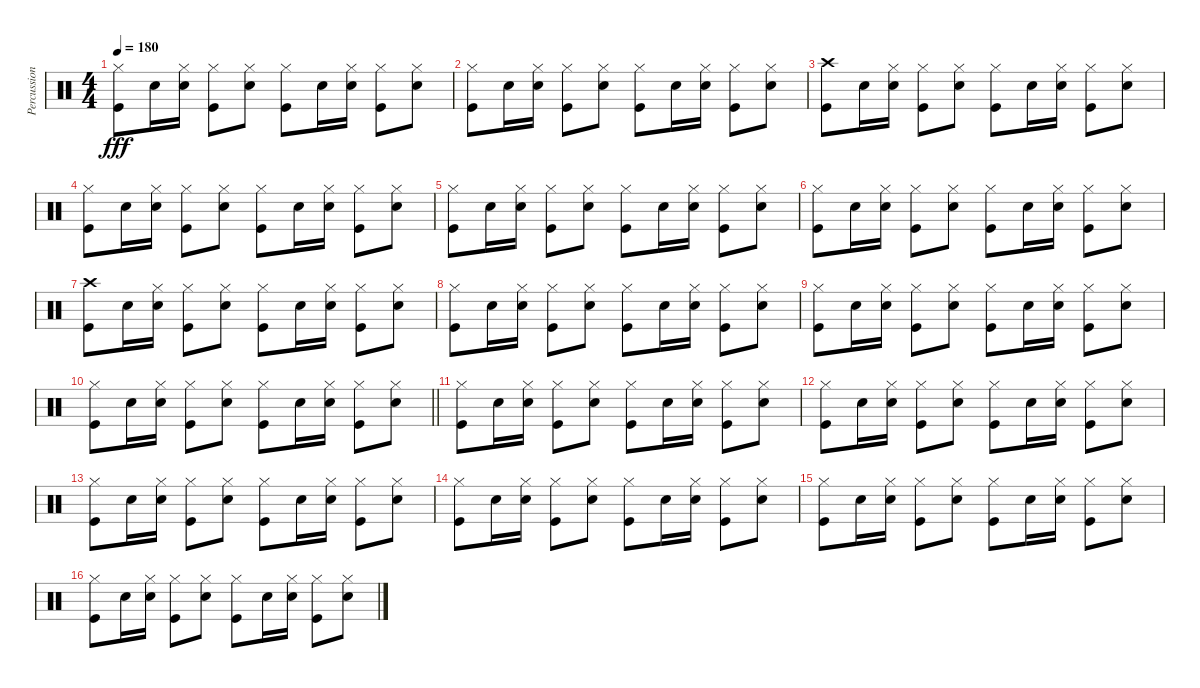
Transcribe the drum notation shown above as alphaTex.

\track ("Percussions" "Percussion") {instrument percussion}
\staff {score}
\articulation defaults
\ts (4 4)
\tempo 180
\clef neutral
\ks c
("Hi-Hat (closed)" "Kick (hit)").8{dy fff} "Electric Snare (hit)".16 ("Hi-Hat (closed)" "Electric Snare (hit)").16 ("Hi-Hat (closed)" "Kick (hit)").8 ("Hi-Hat (closed)" "Electric Snare (hit)").8 ("Hi-Hat (closed)" "Kick (hit)").8 "Electric Snare (hit)".16 ("Hi-Hat (closed)" "Electric Snare (hit)").16 ("Hi-Hat (closed)" "Kick (hit)").8 ("Hi-Hat (closed)" "Electric Snare (hit)").8 |
("Hi-Hat (closed)" "Kick (hit)").8 "Electric Snare (hit)".16 ("Hi-Hat (closed)" "Electric Snare (hit)").16 ("Hi-Hat (closed)" "Kick (hit)").8 ("Hi-Hat (closed)" "Electric Snare (hit)").8 ("Hi-Hat (closed)" "Kick (hit)").8 "Electric Snare (hit)".16 ("Hi-Hat (closed)" "Electric Snare (hit)").16 ("Hi-Hat (closed)" "Kick (hit)").8 ("Hi-Hat (closed)" "Electric Snare (hit)").8 |
("Crash high (hit)" "Kick (hit)").8 "Electric Snare (hit)".16 ("Hi-Hat (closed)" "Electric Snare (hit)").16 ("Hi-Hat (closed)" "Kick (hit)").8 ("Hi-Hat (closed)" "Electric Snare (hit)").8 ("Hi-Hat (closed)" "Kick (hit)").8 "Electric Snare (hit)".16 ("Hi-Hat (closed)" "Electric Snare (hit)").16 ("Hi-Hat (closed)" "Kick (hit)").8 ("Hi-Hat (closed)" "Electric Snare (hit)").8 |
("Hi-Hat (closed)" "Kick (hit)").8 "Electric Snare (hit)".16 ("Hi-Hat (closed)" "Electric Snare (hit)").16 ("Hi-Hat (closed)" "Kick (hit)").8 ("Hi-Hat (closed)" "Electric Snare (hit)").8 ("Hi-Hat (closed)" "Kick (hit)").8 "Electric Snare (hit)".16 ("Hi-Hat (closed)" "Electric Snare (hit)").16 ("Hi-Hat (closed)" "Kick (hit)").8 ("Hi-Hat (closed)" "Electric Snare (hit)").8 |
("Hi-Hat (closed)" "Kick (hit)").8 "Electric Snare (hit)".16 ("Hi-Hat (closed)" "Electric Snare (hit)").16 ("Hi-Hat (closed)" "Kick (hit)").8 ("Hi-Hat (closed)" "Electric Snare (hit)").8 ("Hi-Hat (closed)" "Kick (hit)").8 "Electric Snare (hit)".16 ("Hi-Hat (closed)" "Electric Snare (hit)").16 ("Hi-Hat (closed)" "Kick (hit)").8 ("Hi-Hat (closed)" "Electric Snare (hit)").8 |
("Hi-Hat (closed)" "Kick (hit)").8 "Electric Snare (hit)".16 ("Hi-Hat (closed)" "Electric Snare (hit)").16 ("Hi-Hat (closed)" "Kick (hit)").8 ("Hi-Hat (closed)" "Electric Snare (hit)").8 ("Hi-Hat (closed)" "Kick (hit)").8 "Electric Snare (hit)".16 ("Hi-Hat (closed)" "Electric Snare (hit)").16 ("Hi-Hat (closed)" "Kick (hit)").8 ("Hi-Hat (closed)" "Electric Snare (hit)").8 |
("Crash high (hit)" "Kick (hit)").8 "Electric Snare (hit)".16 ("Hi-Hat (closed)" "Electric Snare (hit)").16 ("Hi-Hat (closed)" "Kick (hit)").8 ("Hi-Hat (closed)" "Electric Snare (hit)").8 ("Hi-Hat (closed)" "Kick (hit)").8 "Electric Snare (hit)".16 ("Hi-Hat (closed)" "Electric Snare (hit)").16 ("Hi-Hat (closed)" "Kick (hit)").8 ("Hi-Hat (closed)" "Electric Snare (hit)").8 |
("Hi-Hat (closed)" "Kick (hit)").8 "Electric Snare (hit)".16 ("Hi-Hat (closed)" "Electric Snare (hit)").16 ("Hi-Hat (closed)" "Kick (hit)").8 ("Hi-Hat (closed)" "Electric Snare (hit)").8 ("Hi-Hat (closed)" "Kick (hit)").8 "Electric Snare (hit)".16 ("Hi-Hat (closed)" "Electric Snare (hit)").16 ("Hi-Hat (closed)" "Kick (hit)").8 ("Hi-Hat (closed)" "Electric Snare (hit)").8 |
("Hi-Hat (closed)" "Kick (hit)").8 "Electric Snare (hit)".16 ("Hi-Hat (closed)" "Electric Snare (hit)").16 ("Hi-Hat (closed)" "Kick (hit)").8 ("Hi-Hat (closed)" "Electric Snare (hit)").8 ("Hi-Hat (closed)" "Kick (hit)").8 "Electric Snare (hit)".16 ("Hi-Hat (closed)" "Electric Snare (hit)").16 ("Hi-Hat (closed)" "Kick (hit)").8 ("Hi-Hat (closed)" "Electric Snare (hit)").8 |
\barLineRight lightlight
("Hi-Hat (closed)" "Kick (hit)").8 "Electric Snare (hit)".16 ("Hi-Hat (closed)" "Electric Snare (hit)").16 ("Hi-Hat (closed)" "Kick (hit)").8 ("Hi-Hat (closed)" "Electric Snare (hit)").8 ("Hi-Hat (closed)" "Kick (hit)").8 "Electric Snare (hit)".16 ("Hi-Hat (closed)" "Electric Snare (hit)").16 ("Hi-Hat (closed)" "Kick (hit)").8 ("Hi-Hat (closed)" "Electric Snare (hit)").8 |
("Hi-Hat (closed)" "Kick (hit)").8 "Electric Snare (hit)".16 ("Hi-Hat (closed)" "Electric Snare (hit)").16 ("Hi-Hat (closed)" "Kick (hit)").8 ("Hi-Hat (closed)" "Electric Snare (hit)").8 ("Hi-Hat (closed)" "Kick (hit)").8 "Electric Snare (hit)".16 ("Hi-Hat (closed)" "Electric Snare (hit)").16 ("Hi-Hat (closed)" "Kick (hit)").8 ("Hi-Hat (closed)" "Electric Snare (hit)").8 |
("Hi-Hat (closed)" "Kick (hit)").8 "Electric Snare (hit)".16 ("Hi-Hat (closed)" "Electric Snare (hit)").16 ("Hi-Hat (closed)" "Kick (hit)").8 ("Hi-Hat (closed)" "Electric Snare (hit)").8 ("Hi-Hat (closed)" "Kick (hit)").8 "Electric Snare (hit)".16 ("Hi-Hat (closed)" "Electric Snare (hit)").16 ("Hi-Hat (closed)" "Kick (hit)").8 ("Hi-Hat (closed)" "Electric Snare (hit)").8 |
("Hi-Hat (closed)" "Kick (hit)").8 "Electric Snare (hit)".16 ("Hi-Hat (closed)" "Electric Snare (hit)").16 ("Hi-Hat (closed)" "Kick (hit)").8 ("Hi-Hat (closed)" "Electric Snare (hit)").8 ("Hi-Hat (closed)" "Kick (hit)").8 "Electric Snare (hit)".16 ("Hi-Hat (closed)" "Electric Snare (hit)").16 ("Hi-Hat (closed)" "Kick (hit)").8 ("Hi-Hat (closed)" "Electric Snare (hit)").8 |
("Hi-Hat (closed)" "Kick (hit)").8 "Electric Snare (hit)".16 ("Hi-Hat (closed)" "Electric Snare (hit)").16 ("Hi-Hat (closed)" "Kick (hit)").8 ("Hi-Hat (closed)" "Electric Snare (hit)").8 ("Hi-Hat (closed)" "Kick (hit)").8 "Electric Snare (hit)".16 ("Hi-Hat (closed)" "Electric Snare (hit)").16 ("Hi-Hat (closed)" "Kick (hit)").8 ("Hi-Hat (closed)" "Electric Snare (hit)").8 |
("Hi-Hat (closed)" "Kick (hit)").8 "Electric Snare (hit)".16 ("Hi-Hat (closed)" "Electric Snare (hit)").16 ("Hi-Hat (closed)" "Kick (hit)").8 ("Hi-Hat (closed)" "Electric Snare (hit)").8 ("Hi-Hat (closed)" "Kick (hit)").8 "Electric Snare (hit)".16 ("Hi-Hat (closed)" "Electric Snare (hit)").16 ("Hi-Hat (closed)" "Kick (hit)").8 ("Hi-Hat (closed)" "Electric Snare (hit)").8 |
("Hi-Hat (closed)" "Kick (hit)").8 "Electric Snare (hit)".16 ("Hi-Hat (closed)" "Electric Snare (hit)").16 ("Hi-Hat (closed)" "Kick (hit)").8 ("Hi-Hat (closed)" "Electric Snare (hit)").8 ("Hi-Hat (closed)" "Kick (hit)").8 "Electric Snare (hit)".16 ("Hi-Hat (closed)" "Electric Snare (hit)").16 ("Hi-Hat (closed)" "Kick (hit)").8 ("Hi-Hat (closed)" "Electric Snare (hit)").8
